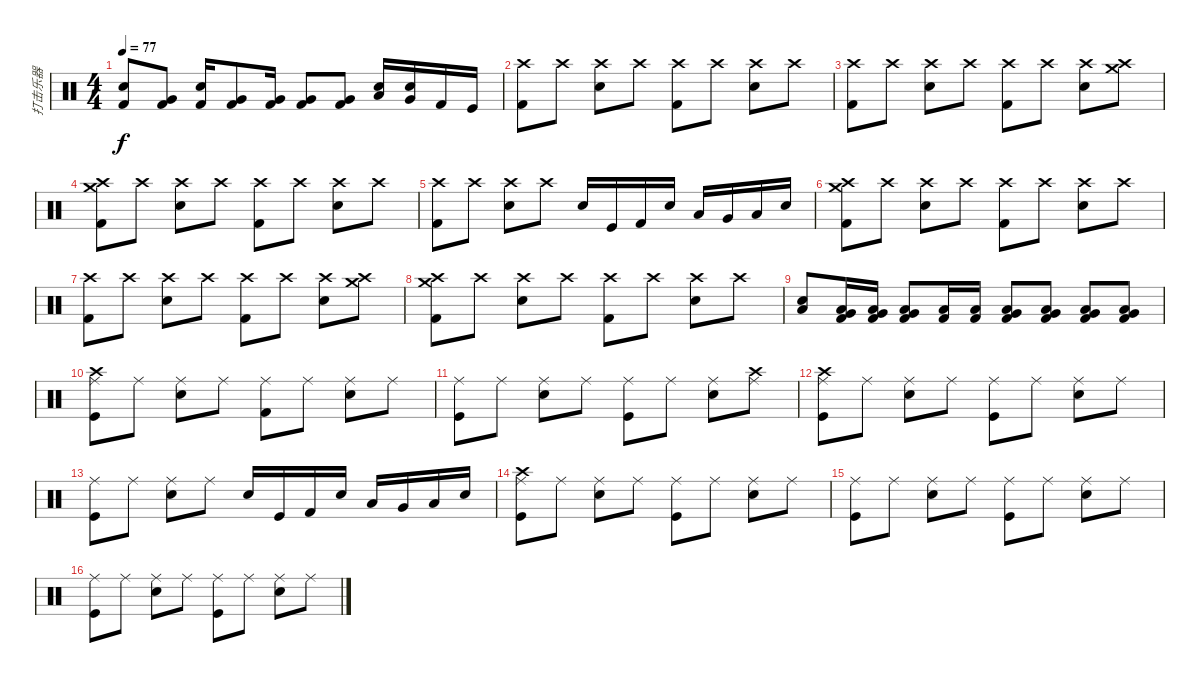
\track ("打击乐器" "打击乐器") {instrument percussion}
\staff {score}
\articulation defaults
\ts (4 4)
\tempo 77
\clef neutral
\ks c
("Kick (hit) 2" "Snare (hit) 2").8{dy f} ("Kick (hit) 2" "Very Low Tom (hit)").8 ("Kick (hit) 2" "Snare (hit) 2").16 ("Kick (hit) 2" "Very Low Tom (hit)").8 ("Kick (hit) 2" "Very Low Tom (hit)").16 ("Kick (hit) 2" "Very Low Tom (hit)").8 ("Kick (hit) 2" "Very Low Tom (hit)").8 ("Snare (hit) 2" "Low Tom (hit)").16 ("Snare (hit) 2" "Very Low Tom (hit)").16 "Kick (hit) 2".16 "Kick (hit)".16 |
("Crash high (hit)" "Kick (hit) 2").8 "Crash high (hit)".8 ("Crash high (hit)" "Snare (hit) 2").8 "Crash high (hit)".8 ("Crash high (hit)" "Kick (hit) 2").8 "Crash high (hit)".8 ("Crash high (hit)" "Snare (hit) 2").8 "Crash high (hit)".8 |
("Crash high (hit)" "Kick (hit) 2").8 "Crash high (hit)".8 ("Crash high (hit)" "Snare (hit) 2").8 "Crash high (hit)".8 ("Crash high (hit)" "Kick (hit) 2").8 "Crash high (hit)".8 ("Crash high (hit)" "Snare (hit) 2").8 ("Crash high (hit)" "Crash medium (hit)").8 |
("Crash high (hit)" "Crash medium (hit)" "Kick (hit) 2").8 "Crash high (hit)".8 ("Crash high (hit)" "Snare (hit) 2").8 "Crash high (hit)".8 ("Crash high (hit)" "Kick (hit) 2").8 "Crash high (hit)".8 ("Crash high (hit)" "Snare (hit) 2").8 "Crash high (hit)".8 |
("Crash high (hit)" "Kick (hit) 2").8 "Crash high (hit)".8 ("Crash high (hit)" "Snare (hit) 2").8 "Crash high (hit)".8 "Snare (hit) 2".16 "Kick (hit)".16 "Kick (hit) 2".16 "Snare (hit) 2".16 "Low Floor Tom (hit)".16 "Very Low Tom (hit)".16 "Low Tom (hit)".16 "Snare (hit) 2".16 |
("Crash high (hit)" "Crash medium (hit)" "Kick (hit) 2").8 "Crash high (hit)".8 ("Crash high (hit)" "Snare (hit) 2").8 "Crash high (hit)".8 ("Crash high (hit)" "Kick (hit) 2").8 "Crash high (hit)".8 ("Crash high (hit)" "Snare (hit) 2").8 "Crash high (hit)".8 |
("Crash high (hit)" "Kick (hit) 2").8 "Crash high (hit)".8 ("Crash high (hit)" "Snare (hit) 2").8 "Crash high (hit)".8 ("Crash high (hit)" "Kick (hit) 2").8 "Crash high (hit)".8 ("Crash high (hit)" "Snare (hit) 2").8 ("Crash high (hit)" "Crash medium (hit)").8 |
("Crash high (hit)" "Crash medium (hit)" "Kick (hit) 2").8 "Crash high (hit)".8 ("Crash high (hit)" "Snare (hit) 2").8 "Crash high (hit)".8 ("Crash high (hit)" "Kick (hit) 2").8 "Crash high (hit)".8 ("Crash high (hit)" "Snare (hit) 2").8 "Crash high (hit)".8 |
("Low Floor Tom (hit)" "Snare (hit) 2").8 ("Very Low Tom (hit)" "Low Floor Tom (hit)" "Kick (hit) 2").16 ("Very Low Tom (hit)" "Low Floor Tom (hit)" "Kick (hit) 2").16 ("Very Low Tom (hit)" "Low Floor Tom (hit)" "Kick (hit) 2").8 ("Low Floor Tom (hit)" "Kick (hit) 2").16 ("Low Floor Tom (hit)" "Kick (hit) 2").16 ("Very Low Tom (hit)" "Low Floor Tom (hit)" "Kick (hit) 2").8 ("Low Tom (hit)" "Very Low Tom (hit)" "Kick (hit) 2").8 ("Low Tom (hit)" "Very Low Tom (hit)" "Kick (hit) 2").8 ("Low Tom (hit)" "Very Low Tom (hit)" "Kick (hit) 2").8 |
("Ride (middle)" "Kick (hit)" "Crash high (hit)").8 "Ride (middle)".8 ("Ride (middle)" "Snare (hit) 2").8 "Ride (middle)".8 ("Ride (middle)" "Kick (hit) 2").8 "Ride (middle)".8 ("Ride (middle)" "Snare (hit) 2").8 "Ride (middle)".8 |
("Ride (middle)" "Kick (hit)").8 "Ride (middle)".8 ("Ride (middle)" "Snare (hit) 2").8 "Ride (middle)".8 ("Ride (middle)" "Kick (hit)").8 "Ride (middle)".8 ("Ride (middle)" "Snare (hit) 2").8 ("Ride (middle)" "Crash high (hit)").8 |
("Ride (middle)" "Kick (hit)" "Crash high (hit)").8 "Ride (middle)".8 ("Ride (middle)" "Snare (hit) 2").8 "Ride (middle)".8 ("Ride (middle)" "Kick (hit)").8 "Ride (middle)".8 ("Ride (middle)" "Snare (hit) 2").8 "Ride (middle)".8 |
("Ride (middle)" "Kick (hit)").8 "Ride (middle)".8 ("Ride (middle)" "Snare (hit) 2").8 "Ride (middle)".8 "Snare (hit) 2".16 "Kick (hit)".16 "Kick (hit) 2".16 "Snare (hit) 2".16 "Low Floor Tom (hit)".16 "Very Low Tom (hit)".16 "Low Tom (hit)".16 "Snare (hit) 2".16 |
("Ride (middle)" "Kick (hit)" "Crash high (hit)").8 "Ride (middle)".8 ("Ride (middle)" "Snare (hit) 2").8 "Ride (middle)".8 ("Ride (middle)" "Kick (hit)").8 "Ride (middle)".8 ("Ride (middle)" "Snare (hit) 2").8 "Ride (middle)".8 |
("Ride (middle)" "Kick (hit)").8 "Ride (middle)".8 ("Ride (middle)" "Snare (hit) 2").8 "Ride (middle)".8 ("Ride (middle)" "Kick (hit)").8 "Ride (middle)".8 ("Ride (middle)" "Snare (hit) 2").8 "Ride (middle)".8 |
("Ride (middle)" "Kick (hit)").8 "Ride (middle)".8 ("Ride (middle)" "Snare (hit) 2").8 "Ride (middle)".8 ("Ride (middle)" "Kick (hit)").8 "Ride (middle)".8 ("Ride (middle)" "Snare (hit) 2").8 "Ride (middle)".8
